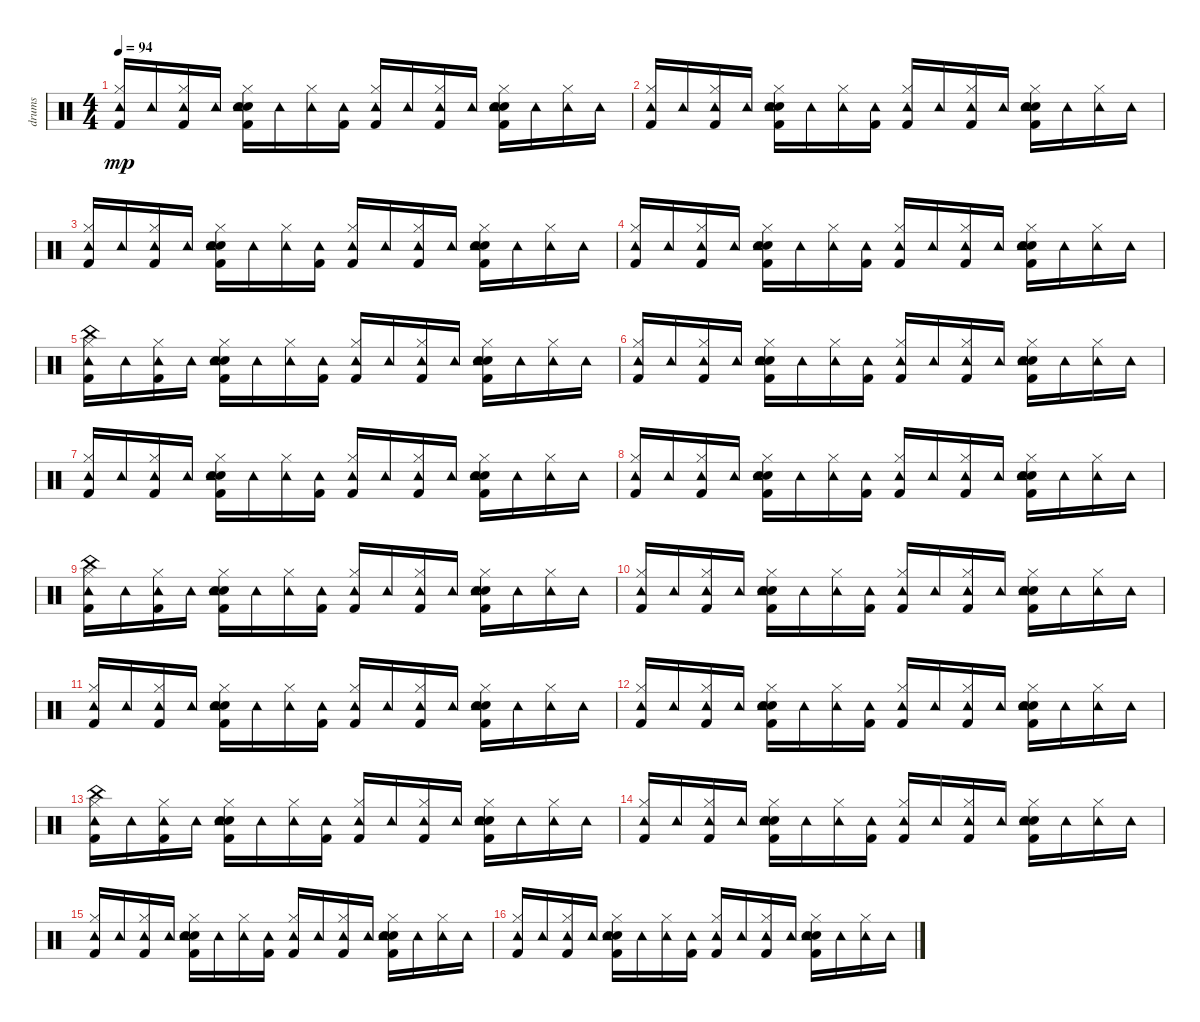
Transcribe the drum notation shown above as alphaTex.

\track ("drums" "drums") {instrument percussion}
\staff {score}
\articulation defaults
\ts (4 4)
\tempo 94
\clef neutral
\ks c
("Kick (hit) 2" "Hi-Hat (closed)" "Tambourine (hit)").16{dy mp} "Tambourine (hit)".16 ("Kick (hit) 2" "Hi-Hat (closed)" "Tambourine (hit)").16 "Tambourine (hit)".16 ("Kick (hit) 2" "Snare (hit) 2" "Hi-Hat (closed)" "Hand Clap (hit)" "Tambourine (hit)").16 "Tambourine (hit)".16 ("Hi-Hat (closed)" "Tambourine (hit)").16 ("Kick (hit) 2" "Tambourine (hit)").16 ("Kick (hit) 2" "Hi-Hat (closed)" "Tambourine (hit)").16 "Tambourine (hit)".16 ("Kick (hit) 2" "Hi-Hat (closed)" "Tambourine (hit)").16 "Tambourine (hit)".16 ("Kick (hit) 2" "Snare (hit) 2" "Hi-Hat (closed)" "Hand Clap (hit)" "Tambourine (hit)").16 "Tambourine (hit)".16 ("Hi-Hat (closed)" "Tambourine (hit)").16 "Tambourine (hit)".16 |
("Kick (hit) 2" "Hi-Hat (closed)" "Tambourine (hit)").16 "Tambourine (hit)".16 ("Kick (hit) 2" "Hi-Hat (closed)" "Tambourine (hit)").16 "Tambourine (hit)".16 ("Kick (hit) 2" "Snare (hit) 2" "Hi-Hat (closed)" "Hand Clap (hit)" "Tambourine (hit)").16 "Tambourine (hit)".16 ("Hi-Hat (closed)" "Tambourine (hit)").16 ("Kick (hit) 2" "Tambourine (hit)").16 ("Kick (hit) 2" "Hi-Hat (closed)" "Tambourine (hit)").16 "Tambourine (hit)".16 ("Kick (hit) 2" "Hi-Hat (closed)" "Tambourine (hit)").16 "Tambourine (hit)".16 ("Kick (hit) 2" "Snare (hit) 2" "Hi-Hat (closed)" "Hand Clap (hit)" "Tambourine (hit)").16 "Tambourine (hit)".16 ("Hi-Hat (closed)" "Tambourine (hit)").16 "Tambourine (hit)".16 |
("Kick (hit) 2" "Hi-Hat (closed)" "Tambourine (hit)").16 "Tambourine (hit)".16 ("Kick (hit) 2" "Hi-Hat (closed)" "Tambourine (hit)").16 "Tambourine (hit)".16 ("Kick (hit) 2" "Snare (hit) 2" "Hi-Hat (closed)" "Hand Clap (hit)" "Tambourine (hit)").16 "Tambourine (hit)".16 ("Hi-Hat (closed)" "Tambourine (hit)").16 ("Kick (hit) 2" "Tambourine (hit)").16 ("Kick (hit) 2" "Hi-Hat (closed)" "Tambourine (hit)").16 "Tambourine (hit)".16 ("Kick (hit) 2" "Hi-Hat (closed)" "Tambourine (hit)").16 "Tambourine (hit)".16 ("Kick (hit) 2" "Snare (hit) 2" "Hi-Hat (closed)" "Hand Clap (hit)" "Tambourine (hit)").16 "Tambourine (hit)".16 ("Hi-Hat (closed)" "Tambourine (hit)").16 "Tambourine (hit)".16 |
("Kick (hit) 2" "Hi-Hat (closed)" "Tambourine (hit)").16 "Tambourine (hit)".16 ("Kick (hit) 2" "Hi-Hat (closed)" "Tambourine (hit)").16 "Tambourine (hit)".16 ("Kick (hit) 2" "Snare (hit) 2" "Hi-Hat (closed)" "Hand Clap (hit)" "Tambourine (hit)").16 "Tambourine (hit)".16 ("Hi-Hat (closed)" "Tambourine (hit)").16 ("Kick (hit) 2" "Tambourine (hit)").16 ("Kick (hit) 2" "Hi-Hat (closed)" "Tambourine (hit)").16 "Tambourine (hit)".16 ("Kick (hit) 2" "Hi-Hat (closed)" "Tambourine (hit)").16 "Tambourine (hit)".16 ("Kick (hit) 2" "Snare (hit) 2" "Hi-Hat (closed)" "Hand Clap (hit)" "Tambourine (hit)").16 "Tambourine (hit)".16 ("Hi-Hat (closed)" "Tambourine (hit)").16 "Tambourine (hit)".16 |
("Kick (hit) 2" "Hi-Hat (closed)" "Tambourine (hit)" "China (hit)").16 "Tambourine (hit)".16 ("Kick (hit) 2" "Hi-Hat (closed)" "Tambourine (hit)").16 "Tambourine (hit)".16 ("Kick (hit) 2" "Snare (hit) 2" "Hi-Hat (closed)" "Hand Clap (hit)" "Tambourine (hit)").16 "Tambourine (hit)".16 ("Hi-Hat (closed)" "Tambourine (hit)").16 ("Kick (hit) 2" "Tambourine (hit)").16 ("Kick (hit) 2" "Hi-Hat (closed)" "Tambourine (hit)").16 "Tambourine (hit)".16 ("Kick (hit) 2" "Hi-Hat (closed)" "Tambourine (hit)").16 "Tambourine (hit)".16 ("Kick (hit) 2" "Snare (hit) 2" "Hi-Hat (closed)" "Hand Clap (hit)" "Tambourine (hit)").16 "Tambourine (hit)".16 ("Hi-Hat (closed)" "Tambourine (hit)").16 "Tambourine (hit)".16 |
("Kick (hit) 2" "Hi-Hat (closed)" "Tambourine (hit)").16 "Tambourine (hit)".16 ("Kick (hit) 2" "Hi-Hat (closed)" "Tambourine (hit)").16 "Tambourine (hit)".16 ("Kick (hit) 2" "Snare (hit) 2" "Hi-Hat (closed)" "Hand Clap (hit)" "Tambourine (hit)").16 "Tambourine (hit)".16 ("Hi-Hat (closed)" "Tambourine (hit)").16 ("Kick (hit) 2" "Tambourine (hit)").16 ("Kick (hit) 2" "Hi-Hat (closed)" "Tambourine (hit)").16 "Tambourine (hit)".16 ("Kick (hit) 2" "Hi-Hat (closed)" "Tambourine (hit)").16 "Tambourine (hit)".16 ("Kick (hit) 2" "Snare (hit) 2" "Hi-Hat (closed)" "Hand Clap (hit)" "Tambourine (hit)").16 "Tambourine (hit)".16 ("Hi-Hat (closed)" "Tambourine (hit)").16 "Tambourine (hit)".16 |
("Kick (hit) 2" "Hi-Hat (closed)" "Tambourine (hit)").16 "Tambourine (hit)".16 ("Kick (hit) 2" "Hi-Hat (closed)" "Tambourine (hit)").16 "Tambourine (hit)".16 ("Kick (hit) 2" "Snare (hit) 2" "Hi-Hat (closed)" "Hand Clap (hit)" "Tambourine (hit)").16 "Tambourine (hit)".16 ("Hi-Hat (closed)" "Tambourine (hit)").16 ("Kick (hit) 2" "Tambourine (hit)").16 ("Kick (hit) 2" "Hi-Hat (closed)" "Tambourine (hit)").16 "Tambourine (hit)".16 ("Kick (hit) 2" "Hi-Hat (closed)" "Tambourine (hit)").16 "Tambourine (hit)".16 ("Kick (hit) 2" "Snare (hit) 2" "Hi-Hat (closed)" "Hand Clap (hit)" "Tambourine (hit)").16 "Tambourine (hit)".16 ("Hi-Hat (closed)" "Tambourine (hit)").16 "Tambourine (hit)".16 |
("Kick (hit) 2" "Hi-Hat (closed)" "Tambourine (hit)").16 "Tambourine (hit)".16 ("Kick (hit) 2" "Hi-Hat (closed)" "Tambourine (hit)").16 "Tambourine (hit)".16 ("Kick (hit) 2" "Snare (hit) 2" "Hi-Hat (closed)" "Hand Clap (hit)" "Tambourine (hit)").16 "Tambourine (hit)".16 ("Hi-Hat (closed)" "Tambourine (hit)").16 ("Kick (hit) 2" "Tambourine (hit)").16 ("Kick (hit) 2" "Hi-Hat (closed)" "Tambourine (hit)").16 "Tambourine (hit)".16 ("Kick (hit) 2" "Hi-Hat (closed)" "Tambourine (hit)").16 "Tambourine (hit)".16 ("Kick (hit) 2" "Snare (hit) 2" "Hi-Hat (closed)" "Hand Clap (hit)" "Tambourine (hit)").16 "Tambourine (hit)".16 ("Hi-Hat (closed)" "Tambourine (hit)").16 "Tambourine (hit)".16 |
("Kick (hit) 2" "Hi-Hat (closed)" "Tambourine (hit)" "China (hit)").16 "Tambourine (hit)".16 ("Kick (hit) 2" "Hi-Hat (closed)" "Tambourine (hit)").16 "Tambourine (hit)".16 ("Kick (hit) 2" "Snare (hit) 2" "Hi-Hat (closed)" "Hand Clap (hit)" "Tambourine (hit)").16 "Tambourine (hit)".16 ("Hi-Hat (closed)" "Tambourine (hit)").16 ("Kick (hit) 2" "Tambourine (hit)").16 ("Kick (hit) 2" "Hi-Hat (closed)" "Tambourine (hit)").16 "Tambourine (hit)".16 ("Kick (hit) 2" "Hi-Hat (closed)" "Tambourine (hit)").16 "Tambourine (hit)".16 ("Kick (hit) 2" "Snare (hit) 2" "Hi-Hat (closed)" "Hand Clap (hit)" "Tambourine (hit)").16 "Tambourine (hit)".16 ("Hi-Hat (closed)" "Tambourine (hit)").16 "Tambourine (hit)".16 |
("Kick (hit) 2" "Hi-Hat (closed)" "Tambourine (hit)").16 "Tambourine (hit)".16 ("Kick (hit) 2" "Hi-Hat (closed)" "Tambourine (hit)").16 "Tambourine (hit)".16 ("Kick (hit) 2" "Snare (hit) 2" "Hi-Hat (closed)" "Hand Clap (hit)" "Tambourine (hit)").16 "Tambourine (hit)".16 ("Hi-Hat (closed)" "Tambourine (hit)").16 ("Kick (hit) 2" "Tambourine (hit)").16 ("Kick (hit) 2" "Hi-Hat (closed)" "Tambourine (hit)").16 "Tambourine (hit)".16 ("Kick (hit) 2" "Hi-Hat (closed)" "Tambourine (hit)").16 "Tambourine (hit)".16 ("Kick (hit) 2" "Snare (hit) 2" "Hi-Hat (closed)" "Hand Clap (hit)" "Tambourine (hit)").16 "Tambourine (hit)".16 ("Hi-Hat (closed)" "Tambourine (hit)").16 "Tambourine (hit)".16 |
("Kick (hit) 2" "Hi-Hat (closed)" "Tambourine (hit)").16 "Tambourine (hit)".16 ("Kick (hit) 2" "Hi-Hat (closed)" "Tambourine (hit)").16 "Tambourine (hit)".16 ("Kick (hit) 2" "Snare (hit) 2" "Hi-Hat (closed)" "Hand Clap (hit)" "Tambourine (hit)").16 "Tambourine (hit)".16 ("Hi-Hat (closed)" "Tambourine (hit)").16 ("Kick (hit) 2" "Tambourine (hit)").16 ("Kick (hit) 2" "Hi-Hat (closed)" "Tambourine (hit)").16 "Tambourine (hit)".16 ("Kick (hit) 2" "Hi-Hat (closed)" "Tambourine (hit)").16 "Tambourine (hit)".16 ("Kick (hit) 2" "Snare (hit) 2" "Hi-Hat (closed)" "Hand Clap (hit)" "Tambourine (hit)").16 "Tambourine (hit)".16 ("Hi-Hat (closed)" "Tambourine (hit)").16 "Tambourine (hit)".16 |
("Kick (hit) 2" "Hi-Hat (closed)" "Tambourine (hit)").16 "Tambourine (hit)".16 ("Kick (hit) 2" "Hi-Hat (closed)" "Tambourine (hit)").16 "Tambourine (hit)".16 ("Kick (hit) 2" "Snare (hit) 2" "Hi-Hat (closed)" "Hand Clap (hit)" "Tambourine (hit)").16 "Tambourine (hit)".16 ("Hi-Hat (closed)" "Tambourine (hit)").16 ("Kick (hit) 2" "Tambourine (hit)").16 ("Kick (hit) 2" "Hi-Hat (closed)" "Tambourine (hit)").16 "Tambourine (hit)".16 ("Kick (hit) 2" "Hi-Hat (closed)" "Tambourine (hit)").16 "Tambourine (hit)".16 ("Kick (hit) 2" "Snare (hit) 2" "Hi-Hat (closed)" "Hand Clap (hit)" "Tambourine (hit)").16 "Tambourine (hit)".16 ("Hi-Hat (closed)" "Tambourine (hit)").16 "Tambourine (hit)".16 |
("Kick (hit) 2" "Hi-Hat (closed)" "Tambourine (hit)" "China (hit)").16 "Tambourine (hit)".16 ("Kick (hit) 2" "Hi-Hat (closed)" "Tambourine (hit)").16 "Tambourine (hit)".16 ("Kick (hit) 2" "Snare (hit) 2" "Hi-Hat (closed)" "Hand Clap (hit)" "Tambourine (hit)").16 "Tambourine (hit)".16 ("Hi-Hat (closed)" "Tambourine (hit)").16 ("Kick (hit) 2" "Tambourine (hit)").16 ("Kick (hit) 2" "Hi-Hat (closed)" "Tambourine (hit)").16 "Tambourine (hit)".16 ("Kick (hit) 2" "Hi-Hat (closed)" "Tambourine (hit)").16 "Tambourine (hit)".16 ("Kick (hit) 2" "Snare (hit) 2" "Hi-Hat (closed)" "Hand Clap (hit)" "Tambourine (hit)").16 "Tambourine (hit)".16 ("Hi-Hat (closed)" "Tambourine (hit)").16 "Tambourine (hit)".16 |
("Kick (hit) 2" "Hi-Hat (closed)" "Tambourine (hit)").16 "Tambourine (hit)".16 ("Kick (hit) 2" "Hi-Hat (closed)" "Tambourine (hit)").16 "Tambourine (hit)".16 ("Kick (hit) 2" "Snare (hit) 2" "Hi-Hat (closed)" "Hand Clap (hit)" "Tambourine (hit)").16 "Tambourine (hit)".16 ("Hi-Hat (closed)" "Tambourine (hit)").16 ("Kick (hit) 2" "Tambourine (hit)").16 ("Kick (hit) 2" "Hi-Hat (closed)" "Tambourine (hit)").16 "Tambourine (hit)".16 ("Kick (hit) 2" "Hi-Hat (closed)" "Tambourine (hit)").16 "Tambourine (hit)".16 ("Kick (hit) 2" "Snare (hit) 2" "Hi-Hat (closed)" "Hand Clap (hit)" "Tambourine (hit)").16 "Tambourine (hit)".16 ("Hi-Hat (closed)" "Tambourine (hit)").16 "Tambourine (hit)".16 |
("Kick (hit) 2" "Hi-Hat (closed)" "Tambourine (hit)").16 "Tambourine (hit)".16 ("Kick (hit) 2" "Hi-Hat (closed)" "Tambourine (hit)").16 "Tambourine (hit)".16 ("Kick (hit) 2" "Snare (hit) 2" "Hi-Hat (closed)" "Hand Clap (hit)" "Tambourine (hit)").16 "Tambourine (hit)".16 ("Hi-Hat (closed)" "Tambourine (hit)").16 ("Kick (hit) 2" "Tambourine (hit)").16 ("Kick (hit) 2" "Hi-Hat (closed)" "Tambourine (hit)").16 "Tambourine (hit)".16 ("Kick (hit) 2" "Hi-Hat (closed)" "Tambourine (hit)").16 "Tambourine (hit)".16 ("Kick (hit) 2" "Snare (hit) 2" "Hi-Hat (closed)" "Hand Clap (hit)" "Tambourine (hit)").16 "Tambourine (hit)".16 ("Hi-Hat (closed)" "Tambourine (hit)").16 "Tambourine (hit)".16 |
("Kick (hit) 2" "Hi-Hat (closed)" "Tambourine (hit)").16 "Tambourine (hit)".16 ("Kick (hit) 2" "Hi-Hat (closed)" "Tambourine (hit)").16 "Tambourine (hit)".16 ("Kick (hit) 2" "Snare (hit) 2" "Hi-Hat (closed)" "Hand Clap (hit)" "Tambourine (hit)").16 "Tambourine (hit)".16 ("Hi-Hat (closed)" "Tambourine (hit)").16 ("Kick (hit) 2" "Tambourine (hit)").16 ("Kick (hit) 2" "Hi-Hat (closed)" "Tambourine (hit)").16 "Tambourine (hit)".16 ("Kick (hit) 2" "Hi-Hat (closed)" "Tambourine (hit)").16 "Tambourine (hit)".16 ("Kick (hit) 2" "Snare (hit) 2" "Hi-Hat (closed)" "Hand Clap (hit)" "Tambourine (hit)").16 "Tambourine (hit)".16 ("Hi-Hat (closed)" "Tambourine (hit)").16 "Tambourine (hit)".16
